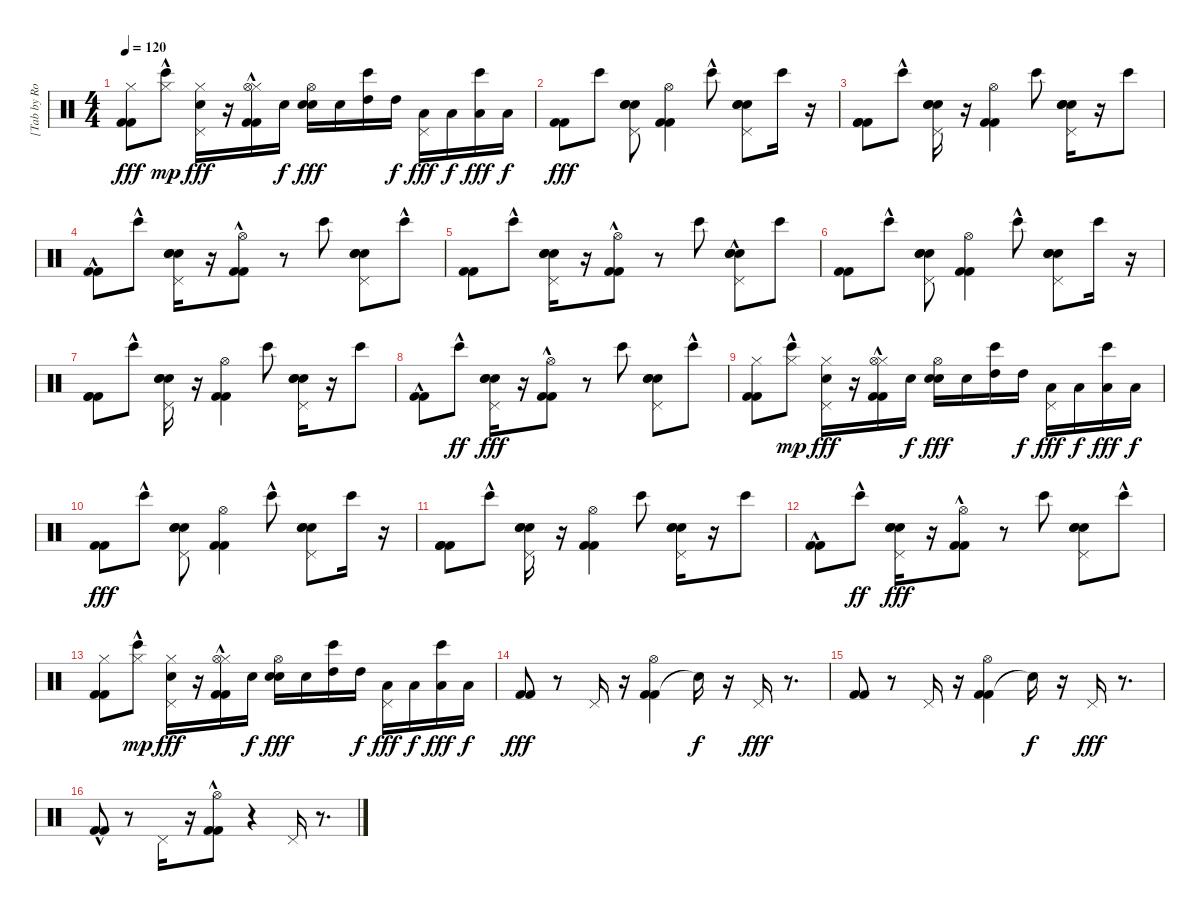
\track ("[Tab by Rodrigo Takahashi]" "[Tab by Ro") {instrument percussion}
\staff {score}
\articulation defaults
\ts (4 4)
\tempo 120
\clef neutral
\ks c
("Hi-Hat (closed)" "Kick (hit) 2" "Kick (hit) 2").8{dy fff} ("Bongo High (hit)"{hac} "Hi-Hat (closed)").8{dy mp} ("Hi-Hat (closed)" "Snare (hit) 2" "Pedal Hi-Hat (hit)").16{dy fff} r.16 ("Hi-Hat (closed)" "Kick (hit) 2"{hac} "Kick (hit) 2"{hac} "Hi-Hat (open)").16 "Snare (hit) 2".16{dy f} ("Snare (hit) 2" "Hi-Hat (open)" "Snare (hit) 2").16{dy fff} "Snare (hit) 2".16 ("High Tom (hit)" "Bongo High (hit)").16 "High Tom (hit)".16{dy f} ("Low Tom (hit)" "Pedal Hi-Hat (hit)").16{dy fff} "Low Tom (hit)".16{dy f} ("Low Floor Tom (hit)" "Bongo High (hit)").16{dy fff} "Low Floor Tom (hit)".16{dy f} |
("Kick (hit) 2" "Kick (hit) 2").8{dy fff} "Bongo High (hit)".8 ("Hand Clap (hit)" "Pedal Hi-Hat (hit)" "Electric Snare (hit)" "Snare (hit) 2").8 ("Kick (hit) 2" "Kick (hit) 2" "Hi-Hat (open)").4 "Bongo High (hit)"{hac}.8 ("Pedal Hi-Hat (hit)" "Electric Snare (hit)" "Snare (hit) 2" "Hand Clap (hit)").8 "Bongo High (hit)".16 r.16 |
("Kick (hit) 2" "Kick (hit) 2" "Kick (hit) 2").8 "Bongo High (hit)"{hac}.8 ("Pedal Hi-Hat (hit)" "Electric Snare (hit)" "Snare (hit) 2" "Hand Clap (hit)").16 r.16 ("Kick (hit) 2" "Kick (hit) 2" "Hi-Hat (open)").4 "Bongo High (hit)".8 ("Pedal Hi-Hat (hit)" "Electric Snare (hit)" "Snare (hit) 2" "Hand Clap (hit)").16 r.16 "Bongo High (hit)".8 |
("Kick (hit) 2"{hac} "Kick (hit) 2"{hac}).8 "Bongo High (hit)"{hac}.8 ("Pedal Hi-Hat (hit)" "Electric Snare (hit)" "Snare (hit) 2" "Hand Clap (hit)").16 r.16 ("Kick (hit) 2"{hac} "Kick (hit) 2"{hac} "Hi-Hat (open)").8 r.8 "Bongo High (hit)".8 ("Snare (hit) 2" "Pedal Hi-Hat (hit)" "Electric Snare (hit)" "Hand Clap (hit)").8 "Bongo High (hit)"{hac}.8 |
("Kick (hit) 2" "Kick (hit) 2").8 "Bongo High (hit)"{hac}.8 ("Pedal Hi-Hat (hit)" "Electric Snare (hit)" "Snare (hit) 2" "Hand Clap (hit)").16 r.16 ("Kick (hit) 2"{hac} "Kick (hit) 2"{hac} "Hi-Hat (open)").8 r.8 "Bongo High (hit)".8 ("Snare (hit) 2" "Pedal Hi-Hat (hit)" "Electric Snare (hit)"{hac} "Hand Clap (hit)").8 "Bongo High (hit)".8 |
("Kick (hit) 2" "Kick (hit) 2").8 "Bongo High (hit)"{hac}.8 ("Hand Clap (hit)" "Pedal Hi-Hat (hit)" "Electric Snare (hit)" "Snare (hit) 2").8 ("Kick (hit) 2" "Kick (hit) 2" "Hi-Hat (open)").4 "Bongo High (hit)"{hac}.8 ("Pedal Hi-Hat (hit)" "Electric Snare (hit)" "Snare (hit) 2" "Hand Clap (hit)").8 "Bongo High (hit)".16 r.16 |
("Kick (hit) 2" "Kick (hit) 2" "Kick (hit) 2").8 "Bongo High (hit)"{hac}.8 ("Pedal Hi-Hat (hit)" "Electric Snare (hit)" "Snare (hit) 2" "Hand Clap (hit)").16 r.16 ("Kick (hit) 2" "Kick (hit) 2" "Hi-Hat (open)").4 "Bongo High (hit)".8 ("Pedal Hi-Hat (hit)" "Electric Snare (hit)" "Snare (hit) 2" "Hand Clap (hit)").16 r.16 "Bongo High (hit)".8 |
("Kick (hit) 2"{hac} "Kick (hit) 2"{hac}).8 "Bongo High (hit)"{hac}.8{dy ff} ("Pedal Hi-Hat (hit)" "Electric Snare (hit)" "Snare (hit) 2" "Hand Clap (hit)").16{dy fff} r.16 ("Kick (hit) 2"{hac} "Kick (hit) 2"{hac} "Hi-Hat (open)").8 r.8 "Bongo High (hit)".8 ("Snare (hit) 2" "Pedal Hi-Hat (hit)" "Electric Snare (hit)" "Hand Clap (hit)").8 "Bongo High (hit)"{hac}.8 |
("Hi-Hat (closed)" "Kick (hit) 2" "Kick (hit) 2").8 ("Bongo High (hit)"{hac} "Hi-Hat (closed)").8{dy mp} ("Hi-Hat (closed)" "Snare (hit) 2" "Pedal Hi-Hat (hit)").16{dy fff} r.16 ("Hi-Hat (closed)" "Kick (hit) 2"{hac} "Kick (hit) 2"{hac} "Hi-Hat (open)").16 "Snare (hit) 2".16{dy f} ("Snare (hit) 2" "Hi-Hat (open)" "Snare (hit) 2").16{dy fff} "Snare (hit) 2".16 ("High Tom (hit)" "Bongo High (hit)").16 "High Tom (hit)".16{dy f} ("Low Tom (hit)" "Pedal Hi-Hat (hit)").16{dy fff} "Low Tom (hit)".16{dy f} ("Low Floor Tom (hit)" "Bongo High (hit)").16{dy fff} "Low Floor Tom (hit)".16{dy f} |
("Kick (hit) 2" "Kick (hit) 2").8{dy fff} "Bongo High (hit)"{hac}.8 ("Hand Clap (hit)" "Pedal Hi-Hat (hit)" "Electric Snare (hit)" "Snare (hit) 2").8 ("Kick (hit) 2" "Kick (hit) 2" "Hi-Hat (open)").4 "Bongo High (hit)"{hac}.8 ("Pedal Hi-Hat (hit)" "Electric Snare (hit)" "Snare (hit) 2" "Hand Clap (hit)").8 "Bongo High (hit)".16 r.16 |
("Kick (hit) 2" "Kick (hit) 2" "Kick (hit) 2").8 "Bongo High (hit)"{hac}.8 ("Pedal Hi-Hat (hit)" "Electric Snare (hit)" "Snare (hit) 2" "Hand Clap (hit)").16 r.16 ("Kick (hit) 2" "Kick (hit) 2" "Hi-Hat (open)").4 "Bongo High (hit)".8 ("Pedal Hi-Hat (hit)" "Electric Snare (hit)" "Snare (hit) 2" "Hand Clap (hit)").16 r.16 "Bongo High (hit)".8 |
("Kick (hit) 2"{hac} "Kick (hit) 2"{hac}).8 "Bongo High (hit)"{hac}.8{dy ff} ("Pedal Hi-Hat (hit)" "Electric Snare (hit)" "Snare (hit) 2" "Hand Clap (hit)").16{dy fff} r.16 ("Kick (hit) 2"{hac} "Kick (hit) 2"{hac} "Hi-Hat (open)").8 r.8 "Bongo High (hit)".8 ("Snare (hit) 2" "Pedal Hi-Hat (hit)" "Electric Snare (hit)" "Hand Clap (hit)").8 "Bongo High (hit)"{hac}.8 |
("Hi-Hat (closed)" "Kick (hit) 2" "Kick (hit) 2").8 ("Bongo High (hit)"{hac} "Hi-Hat (closed)").8{dy mp} ("Hi-Hat (closed)" "Snare (hit) 2" "Pedal Hi-Hat (hit)").16{dy fff} r.16 ("Hi-Hat (closed)" "Kick (hit) 2"{hac} "Kick (hit) 2"{hac} "Hi-Hat (open)").16 "Snare (hit) 2".16{dy f} ("Snare (hit) 2" "Hi-Hat (open)" "Snare (hit) 2").16{dy fff} "Snare (hit) 2".16 ("High Tom (hit)" "Bongo High (hit)").16 "High Tom (hit)".16{dy f} ("Low Tom (hit)" "Pedal Hi-Hat (hit)").16{dy fff} "Low Tom (hit)".16{dy f} ("Low Floor Tom (hit)" "Bongo High (hit)").16{dy fff} "Low Floor Tom (hit)".16{dy f} |
("Kick (hit) 2" "Kick (hit) 2").8{dy fff} r.8 "Pedal Hi-Hat (hit)".16 r.16 ("Kick (hit) 2" "Kick (hit) 2" "Hi-Hat (open)").4 "Snare (hit)"{t}.16{dy f} r.16 "Pedal Hi-Hat (hit)".16{dy fff} r.8{d} |
("Kick (hit) 2" "Kick (hit) 2").8 r.8 "Pedal Hi-Hat (hit)".16 r.16 ("Kick (hit) 2" "Kick (hit) 2" "Hi-Hat (open)").4 "Snare (hit)"{t}.16{dy f} r.16 "Pedal Hi-Hat (hit)".16{dy fff} r.8{d} |
("Kick (hit) 2"{hac} "Kick (hit) 2"{hac}).8 r.8 "Pedal Hi-Hat (hit)".16 r.16 ("Kick (hit) 2"{hac} "Kick (hit) 2"{hac} "Hi-Hat (open)").8 r.4 "Pedal Hi-Hat (hit)".16 r.8{d}
